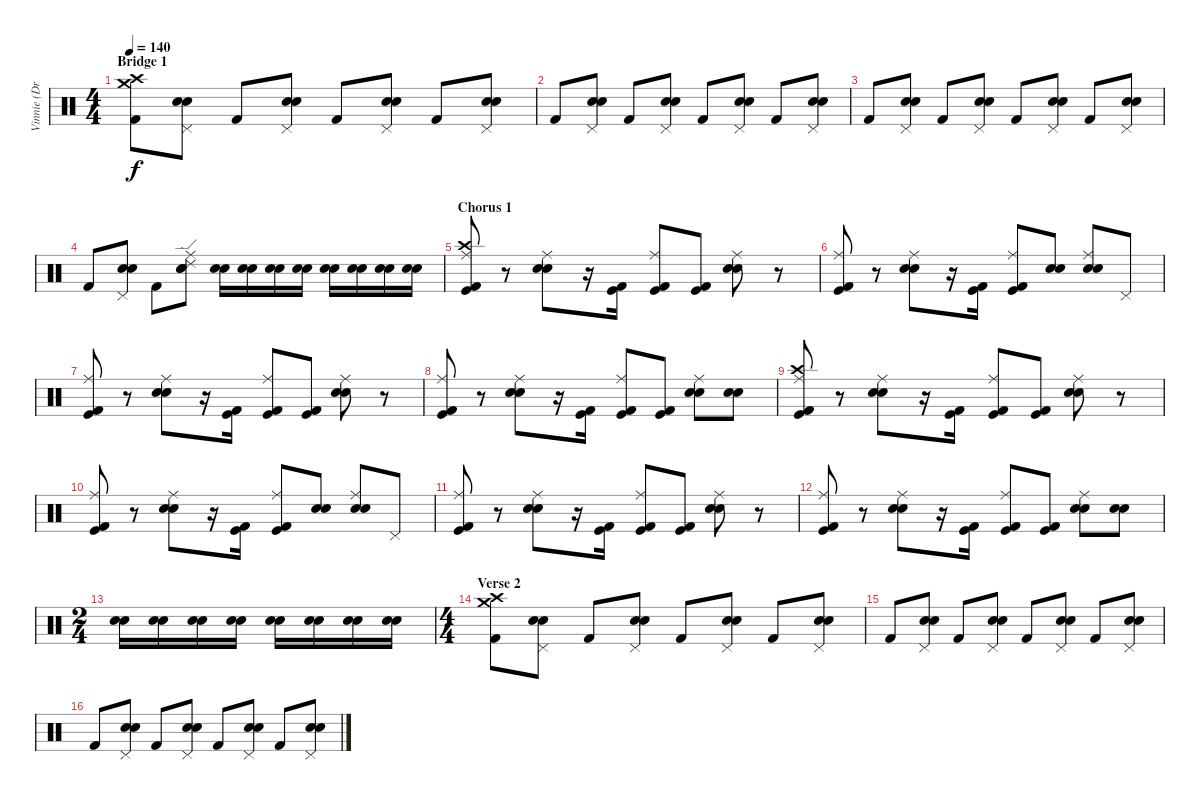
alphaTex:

\track ("Vinnie (Drums)" "Vinnie (Dr") {instrument percussion}
\staff {score}
\articulation defaults
\ts (4 4)
\section ("" "Bridge 1")
\tempo 140
\clef neutral
\ks c
("Kick (hit) 2" "Crash medium (hit)" "Crash high (hit)").8{dy f} ("Snare (hit) 2" "Electric Snare (hit)" "Pedal Hi-Hat (hit)").8 "Kick (hit) 2".8 ("Snare (hit) 2" "Electric Snare (hit)" "Pedal Hi-Hat (hit)").8 "Kick (hit) 2".8 ("Snare (hit) 2" "Electric Snare (hit)" "Pedal Hi-Hat (hit)").8 "Kick (hit) 2".8 ("Snare (hit) 2" "Electric Snare (hit)" "Pedal Hi-Hat (hit)").8 |
"Kick (hit) 2".8 ("Snare (hit) 2" "Electric Snare (hit)" "Pedal Hi-Hat (hit)").8 "Kick (hit) 2".8 ("Snare (hit) 2" "Electric Snare (hit)" "Pedal Hi-Hat (hit)").8 "Kick (hit) 2".8 ("Snare (hit) 2" "Electric Snare (hit)" "Pedal Hi-Hat (hit)").8 "Kick (hit) 2".8 ("Snare (hit) 2" "Electric Snare (hit)" "Pedal Hi-Hat (hit)").8 |
"Kick (hit) 2".8 ("Snare (hit) 2" "Electric Snare (hit)" "Pedal Hi-Hat (hit)").8 "Kick (hit) 2".8 ("Snare (hit) 2" "Electric Snare (hit)" "Pedal Hi-Hat (hit)").8 "Kick (hit) 2".8 ("Snare (hit) 2" "Electric Snare (hit)" "Pedal Hi-Hat (hit)").8 "Kick (hit) 2".8 ("Snare (hit) 2" "Electric Snare (hit)" "Pedal Hi-Hat (hit)").8 |
"Kick (hit) 2".8 ("Snare (hit) 2" "Electric Snare (hit)" "Pedal Hi-Hat (hit)").8 "Kick (hit) 2".8 ("Snare (hit) 2" "Electric Snare (hit)" "Ride (edge) 2" "Ride (middle)").8 ("Snare (hit) 2" "Electric Snare (hit)").16 ("Snare (hit) 2" "Electric Snare (hit)").16 ("Snare (hit) 2" "Electric Snare (hit)").16 ("Snare (hit) 2" "Electric Snare (hit)").16 ("Snare (hit) 2" "Electric Snare (hit)").16 ("Snare (hit) 2" "Electric Snare (hit)").16 ("Snare (hit) 2" "Electric Snare (hit)").16 ("Snare (hit) 2" "Electric Snare (hit)").16 |
\section ("" "Chorus 1")
("Kick (hit) 2" "Kick (hit)" "Ride (middle)" "Crash high (hit)").8 r.8 ("Snare (hit) 2" "Electric Snare (hit)" "Ride (middle)").8 r.16 ("Kick (hit) 2" "Kick (hit)").16 ("Kick (hit) 2" "Kick (hit)" "Ride (middle)").8 ("Kick (hit) 2" "Kick (hit)").8 ("Snare (hit) 2" "Electric Snare (hit)" "Ride (middle)").8 r.8 |
("Kick (hit) 2" "Kick (hit)" "Ride (middle)").8 r.8 ("Snare (hit) 2" "Electric Snare (hit)" "Ride (middle)").8 r.16 ("Kick (hit) 2" "Kick (hit)").16 ("Kick (hit) 2" "Kick (hit)" "Ride (middle)").8 ("Snare (hit) 2" "Electric Snare (hit)").8 ("Snare (hit) 2" "Electric Snare (hit)" "Ride (middle)").8 "Pedal Hi-Hat (hit)".8 |
("Kick (hit) 2" "Kick (hit)" "Ride (middle)").8 r.8 ("Snare (hit) 2" "Electric Snare (hit)" "Ride (middle)").8 r.16 ("Kick (hit) 2" "Kick (hit)").16 ("Kick (hit) 2" "Kick (hit)" "Ride (middle)").8 ("Kick (hit) 2" "Kick (hit)").8 ("Snare (hit) 2" "Electric Snare (hit)" "Ride (middle)").8 r.8 |
("Kick (hit) 2" "Kick (hit)" "Ride (middle)").8 r.8 ("Snare (hit) 2" "Electric Snare (hit)" "Ride (middle)").8 r.16 ("Kick (hit) 2" "Kick (hit)").16 ("Kick (hit) 2" "Kick (hit)" "Ride (middle)").8 ("Kick (hit) 2" "Kick (hit)").8 ("Snare (hit) 2" "Electric Snare (hit)" "Ride (middle)").8 ("Snare (hit) 2" "Electric Snare (hit)").8 |
("Kick (hit) 2" "Kick (hit)" "Ride (middle)" "Crash high (hit)").8 r.8 ("Snare (hit) 2" "Electric Snare (hit)" "Ride (middle)").8 r.16 ("Kick (hit) 2" "Kick (hit)").16 ("Kick (hit) 2" "Kick (hit)" "Ride (middle)").8 ("Kick (hit) 2" "Kick (hit)").8 ("Snare (hit) 2" "Electric Snare (hit)" "Ride (middle)").8 r.8 |
("Kick (hit) 2" "Kick (hit)" "Ride (middle)").8 r.8 ("Snare (hit) 2" "Electric Snare (hit)" "Ride (middle)").8 r.16 ("Kick (hit) 2" "Kick (hit)").16 ("Kick (hit) 2" "Kick (hit)" "Ride (middle)").8 ("Snare (hit) 2" "Electric Snare (hit)").8 ("Snare (hit) 2" "Electric Snare (hit)" "Ride (middle)").8 "Pedal Hi-Hat (hit)".8 |
("Kick (hit) 2" "Kick (hit)" "Ride (middle)").8 r.8 ("Snare (hit) 2" "Electric Snare (hit)" "Ride (middle)").8 r.16 ("Kick (hit) 2" "Kick (hit)").16 ("Kick (hit) 2" "Kick (hit)" "Ride (middle)").8 ("Kick (hit) 2" "Kick (hit)").8 ("Snare (hit) 2" "Electric Snare (hit)" "Ride (middle)").8 r.8 |
("Kick (hit) 2" "Kick (hit)" "Ride (middle)").8 r.8 ("Snare (hit) 2" "Electric Snare (hit)" "Ride (middle)").8 r.16 ("Kick (hit) 2" "Kick (hit)").16 ("Kick (hit) 2" "Kick (hit)" "Ride (middle)").8 ("Kick (hit) 2" "Kick (hit)").8 ("Snare (hit) 2" "Electric Snare (hit)" "Ride (middle)").8 ("Snare (hit) 2" "Electric Snare (hit)").8 |
\ts (2 4)
("Snare (hit) 2" "Electric Snare (hit)").16 ("Snare (hit) 2" "Electric Snare (hit)").16 ("Snare (hit) 2" "Electric Snare (hit)").16 ("Snare (hit) 2" "Electric Snare (hit)").16 ("Snare (hit) 2" "Electric Snare (hit)").16 ("Snare (hit) 2" "Electric Snare (hit)").16 ("Snare (hit) 2" "Electric Snare (hit)").16 ("Snare (hit) 2" "Electric Snare (hit)").16 |
\ts (4 4)
\section ("" "Verse 2")
("Kick (hit) 2" "Crash medium (hit)" "Crash high (hit)").8 ("Snare (hit) 2" "Electric Snare (hit)" "Pedal Hi-Hat (hit)").8 "Kick (hit) 2".8 ("Snare (hit) 2" "Electric Snare (hit)" "Pedal Hi-Hat (hit)").8 "Kick (hit) 2".8 ("Snare (hit) 2" "Electric Snare (hit)" "Pedal Hi-Hat (hit)").8 "Kick (hit) 2".8 ("Snare (hit) 2" "Electric Snare (hit)" "Pedal Hi-Hat (hit)").8 |
"Kick (hit) 2".8 ("Snare (hit) 2" "Electric Snare (hit)" "Pedal Hi-Hat (hit)").8 "Kick (hit) 2".8 ("Snare (hit) 2" "Electric Snare (hit)" "Pedal Hi-Hat (hit)").8 "Kick (hit) 2".8 ("Snare (hit) 2" "Electric Snare (hit)" "Pedal Hi-Hat (hit)").8 "Kick (hit) 2".8 ("Snare (hit) 2" "Electric Snare (hit)" "Pedal Hi-Hat (hit)").8 |
"Kick (hit) 2".8 ("Snare (hit) 2" "Electric Snare (hit)" "Pedal Hi-Hat (hit)").8 "Kick (hit) 2".8 ("Snare (hit) 2" "Electric Snare (hit)" "Pedal Hi-Hat (hit)").8 "Kick (hit) 2".8 ("Snare (hit) 2" "Electric Snare (hit)" "Pedal Hi-Hat (hit)").8 "Kick (hit) 2".8 ("Snare (hit) 2" "Electric Snare (hit)" "Pedal Hi-Hat (hit)").8
